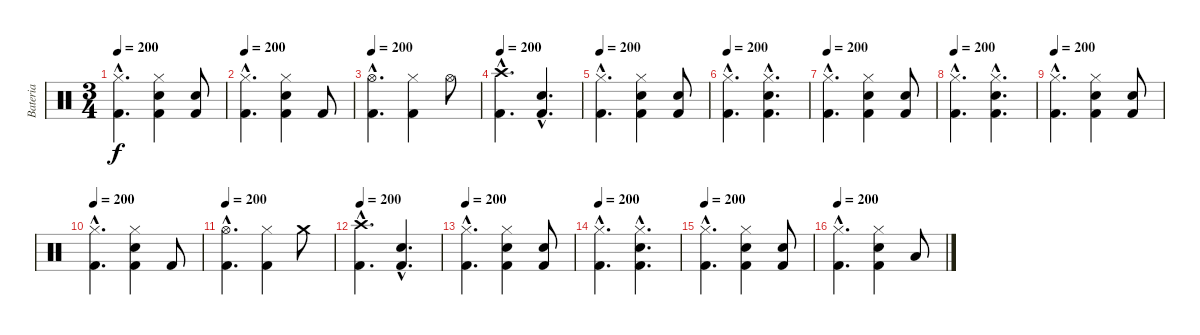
\track ("Bateria" "Bateria") {instrument percussion}
\staff {score}
\articulation defaults
\ts (3 4)
\tempo 200
\clef neutral
\ks c
("Hi-Hat (closed)"{hac} "Kick (hit) 2"{hac}).4{d dy f} ("Hi-Hat (closed)" "Electric Snare (hit)" "Kick (hit) 2").4 ("Electric Snare (hit)" "Kick (hit) 2").8 |
\tempo 200
("Hi-Hat (closed)"{hac} "Kick (hit) 2"{hac}).4{d} ("Hi-Hat (closed)" "Electric Snare (hit)" "Kick (hit) 2").4 "Kick (hit) 2".8 |
\tempo 200
("Hi-Hat (open)"{hac} "Kick (hit) 2"{hac}).4{d} ("Hi-Hat (closed)" "Kick (hit) 2").4 "Hi-Hat (open)".8 |
\tempo 200
("Crash high (hit)"{hac} "Kick (hit) 2"{hac}).4{d} ("Electric Snare (hit)"{hac} "Kick (hit) 2"{hac}).4{d} |
\tempo 200
("Hi-Hat (closed)"{hac} "Kick (hit) 2"{hac}).4{d} ("Hi-Hat (closed)" "Electric Snare (hit)" "Kick (hit) 2").4 ("Electric Snare (hit)" "Kick (hit) 2").8 |
\tempo 200
("Hi-Hat (closed)"{hac} "Kick (hit) 2"{hac}).4{d} ("Hi-Hat (closed)"{hac} "Electric Snare (hit)"{hac} "Kick (hit) 2"{hac}).4{d} |
\tempo 200
("Hi-Hat (closed)"{hac} "Kick (hit) 2"{hac}).4{d} ("Hi-Hat (closed)" "Electric Snare (hit)" "Kick (hit) 2").4 ("Electric Snare (hit)" "Kick (hit) 2").8 |
\tempo 200
("Hi-Hat (closed)"{hac} "Kick (hit) 2"{hac}).4{d} ("Hi-Hat (closed)"{hac} "Electric Snare (hit)"{hac} "Kick (hit) 2"{hac}).4{d} |
\tempo 200
("Hi-Hat (closed)"{hac} "Kick (hit) 2"{hac}).4{d} ("Hi-Hat (closed)" "Electric Snare (hit)" "Kick (hit) 2").4 ("Electric Snare (hit)" "Kick (hit) 2").8 |
\tempo 200
("Hi-Hat (closed)"{hac} "Kick (hit) 2"{hac}).4{d} ("Hi-Hat (closed)" "Electric Snare (hit)" "Kick (hit) 2").4 "Kick (hit) 2".8 |
\tempo 200
("Hi-Hat (open)"{hac} "Kick (hit) 2"{hac}).4{d} ("Hi-Hat (closed)" "Kick (hit) 2").4 "Crash medium (hit)".8 |
\tempo 200
("Crash high (hit)"{hac} "Kick (hit) 2"{hac}).4{d} ("Electric Snare (hit)"{hac} "Kick (hit) 2"{hac}).4{d} |
\tempo 200
("Hi-Hat (closed)"{hac} "Kick (hit) 2"{hac}).4{d} ("Hi-Hat (closed)" "Electric Snare (hit)" "Kick (hit) 2").4 ("Electric Snare (hit)" "Kick (hit) 2").8 |
\tempo 200
("Hi-Hat (closed)"{hac} "Kick (hit) 2"{hac}).4{d} ("Hi-Hat (closed)"{hac} "Electric Snare (hit)"{hac} "Kick (hit) 2"{hac}).4{d} |
\tempo 200
("Hi-Hat (closed)"{hac} "Kick (hit) 2"{hac}).4{d} ("Hi-Hat (closed)" "Electric Snare (hit)" "Kick (hit) 2").4 ("Electric Snare (hit)" "Kick (hit) 2").8 |
\tempo 200
("Hi-Hat (closed)"{hac} "Kick (hit) 2"{hac}).4{d} ("Hi-Hat (closed)" "Electric Snare (hit)" "Kick (hit) 2").4 "Low Tom (hit)".8
